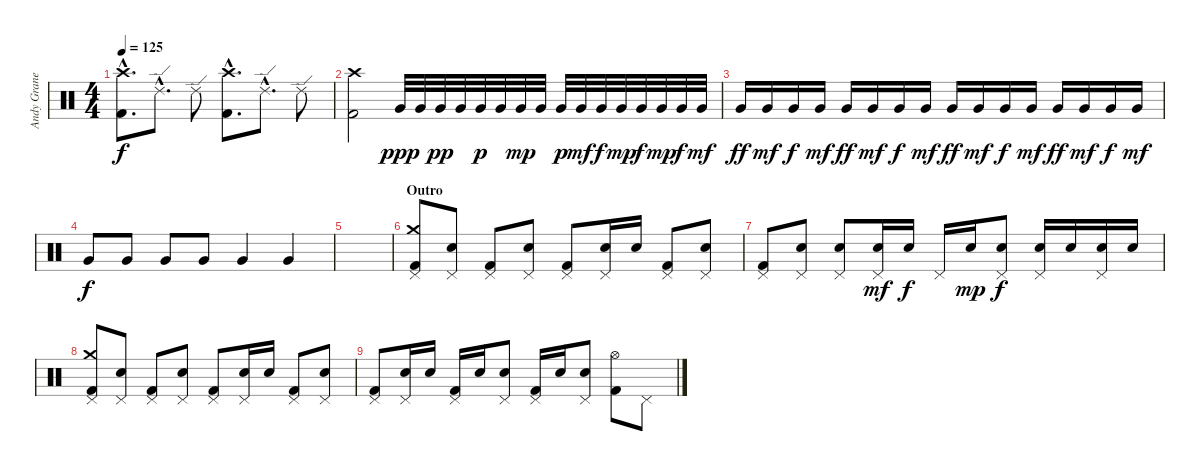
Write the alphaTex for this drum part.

\track ("Andy Granelli" "Andy Grane") {instrument percussion}
\staff {score}
\articulation defaults
\ts (4 4)
\tempo 125
\clef neutral
\ks c
("Crash high (hit)"{hac} "Kick (hit) 2"{hac}).8{d dy f} "Ride (edge) 2"{hac}.8{d} "Ride (edge) 2".8 ("Crash high (hit)"{hac} "Kick (hit) 2"{hac}).8{d} "Ride (edge) 2"{hac}.8{d} "Ride (edge) 2".8 |
("Crash high (hit)" "Kick (hit) 2").2 "Very Low Tom (hit)".32{dy ppp} "Very Low Tom (hit)".32 "Very Low Tom (hit)".32{dy pp} "Very Low Tom (hit)".32 "Very Low Tom (hit)".32{dy p} "Very Low Tom (hit)".32 "Very Low Tom (hit)".32{dy mp} "Very Low Tom (hit)".32 "Very Low Tom (hit)".32{dy p} "Very Low Tom (hit)".32{dy mf} "Very Low Tom (hit)".32{dy f} "Very Low Tom (hit)".32{dy mp} "Very Low Tom (hit)".32{dy f} "Very Low Tom (hit)".32{dy mp} "Very Low Tom (hit)".32{dy f} "Very Low Tom (hit)".32{dy mf} |
"Very Low Tom (hit)".16{dy ff} "Very Low Tom (hit)".16{dy mf} "Very Low Tom (hit)".16{dy f} "Very Low Tom (hit)".16{dy mf} "Very Low Tom (hit)".16{dy ff} "Very Low Tom (hit)".16{dy mf} "Very Low Tom (hit)".16{dy f} "Very Low Tom (hit)".16{dy mf} "Very Low Tom (hit)".16{dy ff} "Very Low Tom (hit)".16{dy mf} "Very Low Tom (hit)".16{dy f} "Very Low Tom (hit)".16{dy mf} "Very Low Tom (hit)".16{dy ff} "Very Low Tom (hit)".16{dy mf} "Very Low Tom (hit)".16{dy f} "Very Low Tom (hit)".16{dy mf} |
"Very Low Tom (hit)".8{dy f} "Very Low Tom (hit)".8 "Very Low Tom (hit)".8 "Very Low Tom (hit)".8 "Very Low Tom (hit)".4 "Very Low Tom (hit)".4 |
|
\section ("" "Outro")
("Crash medium (hit)" "Pedal Hi-Hat (hit)" "Kick (hit) 2").8 ("Pedal Hi-Hat (hit)" "Electric Snare (hit)").8 ("Pedal Hi-Hat (hit)" "Kick (hit) 2").8 ("Pedal Hi-Hat (hit)" "Electric Snare (hit)").8 ("Pedal Hi-Hat (hit)" "Kick (hit) 2").8 ("Pedal Hi-Hat (hit)" "Electric Snare (hit)").16 "Electric Snare (hit)".16 ("Pedal Hi-Hat (hit)" "Kick (hit) 2").8 ("Pedal Hi-Hat (hit)" "Electric Snare (hit)").8 |
("Pedal Hi-Hat (hit)" "Kick (hit) 2").8 ("Pedal Hi-Hat (hit)" "Electric Snare (hit)").8 ("Pedal Hi-Hat (hit)" "Electric Snare (hit)").8 ("Pedal Hi-Hat (hit)" "Electric Snare (hit)").16{dy mf} "Electric Snare (hit)".16{dy f} "Pedal Hi-Hat (hit)".16 "Electric Snare (hit)".16{dy mp} ("Pedal Hi-Hat (hit)" "Electric Snare (hit)").8{dy f} ("Pedal Hi-Hat (hit)" "Electric Snare (hit)").16 "Electric Snare (hit)".16 ("Pedal Hi-Hat (hit)" "Electric Snare (hit)").16 "Electric Snare (hit)".16 |
("Crash medium (hit)" "Pedal Hi-Hat (hit)" "Kick (hit) 2").8 ("Pedal Hi-Hat (hit)" "Electric Snare (hit)").8 ("Pedal Hi-Hat (hit)" "Kick (hit) 2").8 ("Pedal Hi-Hat (hit)" "Electric Snare (hit)").8 ("Pedal Hi-Hat (hit)" "Kick (hit) 2").8 ("Pedal Hi-Hat (hit)" "Electric Snare (hit)").16 "Electric Snare (hit)".16 ("Pedal Hi-Hat (hit)" "Kick (hit) 2").8 ("Pedal Hi-Hat (hit)" "Electric Snare (hit)").8 |
("Pedal Hi-Hat (hit)" "Kick (hit) 2").8 ("Pedal Hi-Hat (hit)" "Electric Snare (hit)").16 "Electric Snare (hit)".16 ("Pedal Hi-Hat (hit)" "Kick (hit) 2").16 "Electric Snare (hit)".16 ("Pedal Hi-Hat (hit)" "Electric Snare (hit)").8 ("Pedal Hi-Hat (hit)" "Kick (hit) 2").16 "Electric Snare (hit)".16 ("Pedal Hi-Hat (hit)" "Electric Snare (hit)").8 ("Hi-Hat (open)" "Kick (hit) 2").8 "Pedal Hi-Hat (hit)".8
